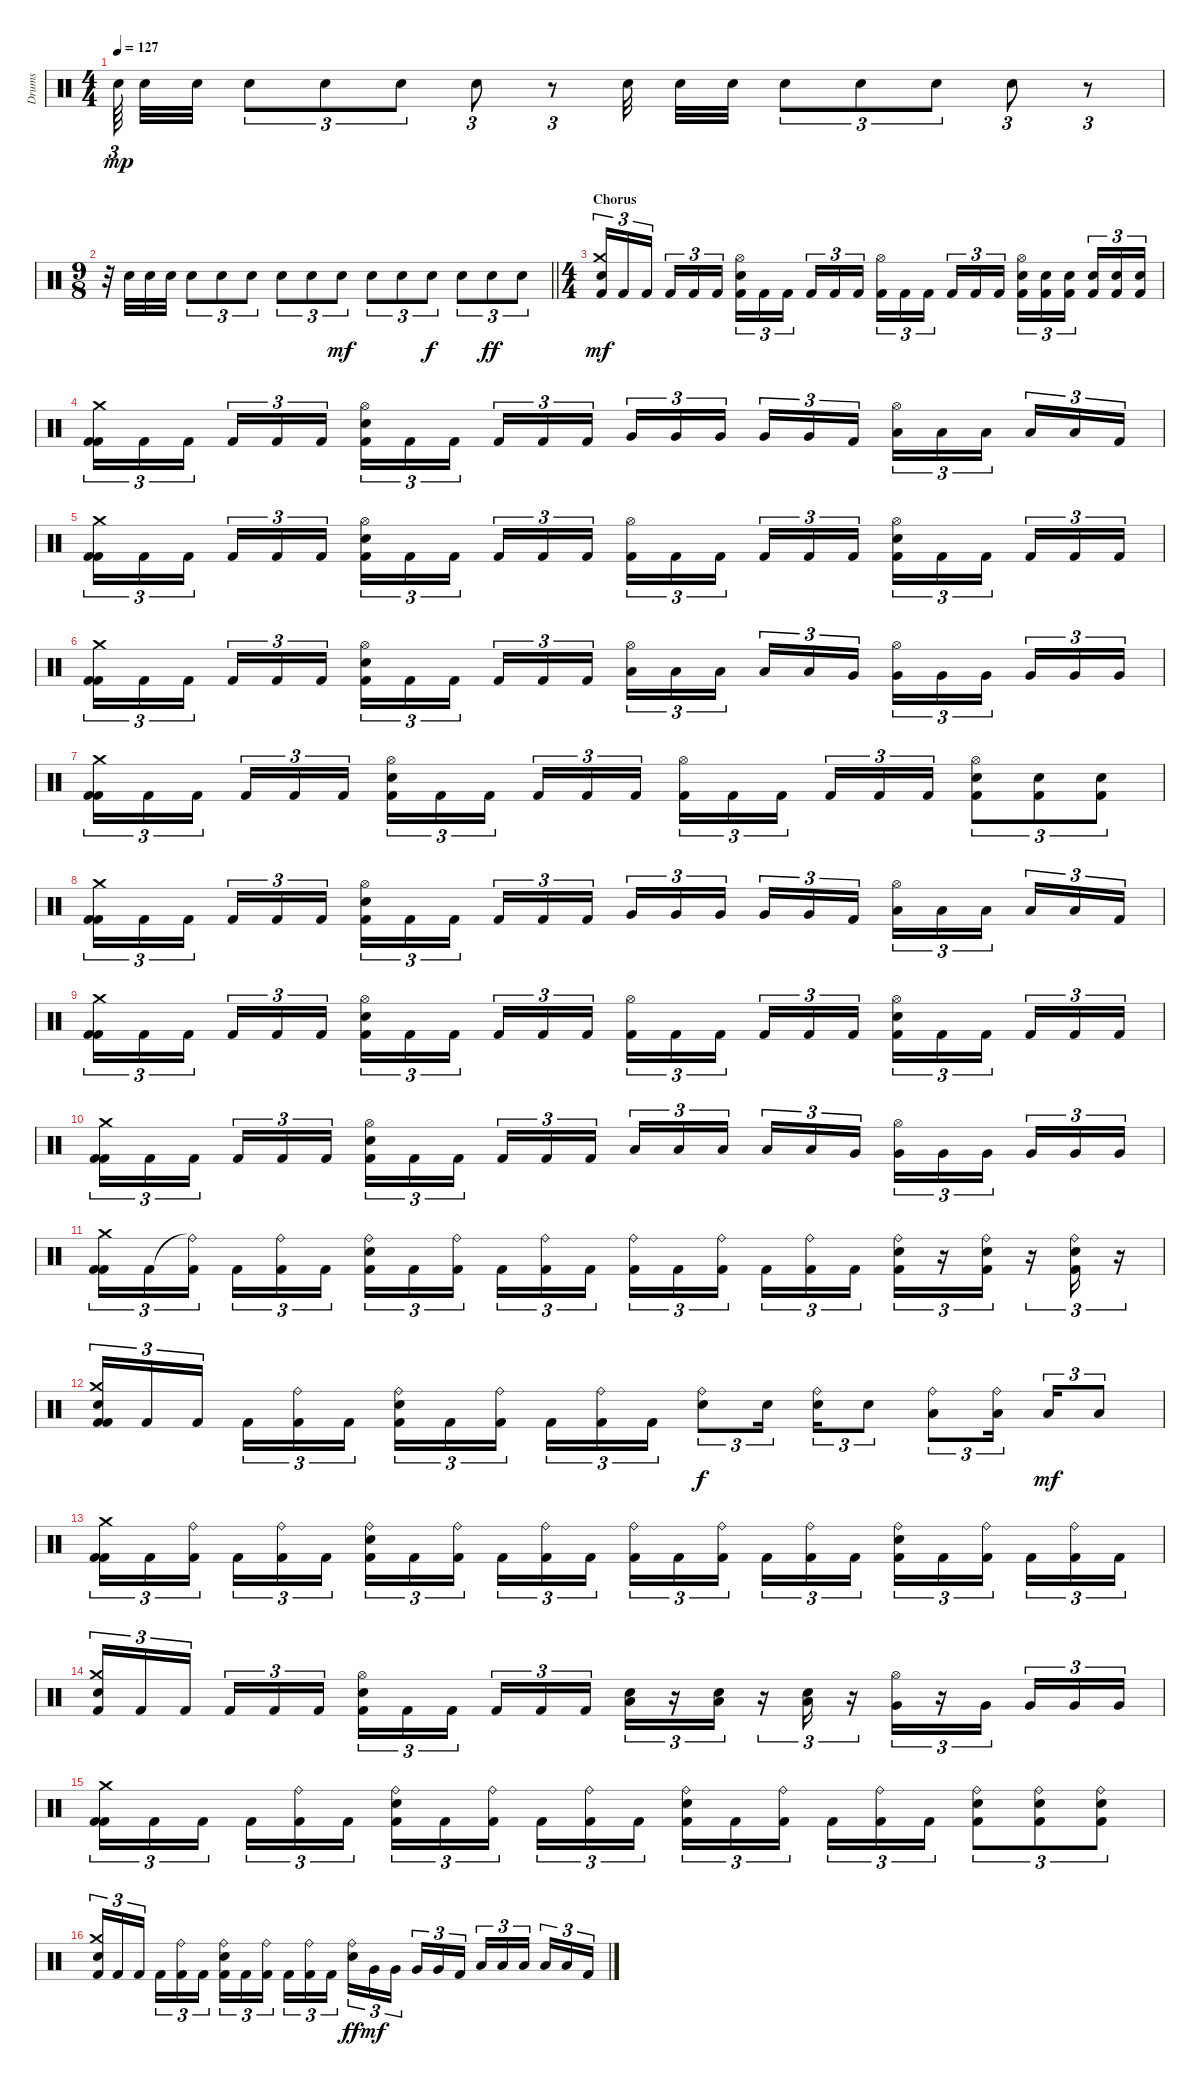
\track ("Drums" "Drums") {instrument percussion}
\staff {score}
\articulation defaults
\ts (4 4)
\tempo 127
\clef neutral
\ks c "Snare (hit) 2".64{tu (3 2) dy mp beam splitsecondary} "Snare (hit) 2".32 "Snare (hit) 2".32 "Snare (hit) 2".8{tu (3 2)} "Snare (hit) 2".8{tu (3 2)} "Snare (hit) 2".8{tu (3 2)} "Snare (hit) 2".8{tu (3 2)}
r.8{tu (3 2)} "Snare (hit) 2".32 "Snare (hit) 2".32 "Snare (hit) 2".32 "Snare (hit) 2".8{tu (3 2)} "Snare (hit) 2".8{tu (3 2)} "Snare (hit) 2".8{tu (3 2)} "Snare (hit) 2".8{tu (3 2)} r.8{tu (3 2)} |
\ts (9 8)
\barLineRight lightlight
r.32 "Snare (hit) 2".32 "Snare (hit) 2".32 "Snare (hit) 2".32 "Snare (hit) 2".8{tu (3 2)} "Snare (hit) 2".8{tu (3 2)} "Snare (hit) 2".8{tu (3 2)} "Snare (hit) 2".8{tu (3 2)} "Snare (hit) 2".8{tu (3 2)} "Snare (hit) 2".8{tu (3 2) dy mf} "Snare (hit) 2".8{tu (3 2)} "Snare (hit) 2".8{tu (3 2)} "Snare (hit) 2".8{tu (3 2) dy f} "Snare (hit) 2".8{tu (3 2)} "Snare (hit) 2".8{tu (3 2) dy ff} "Snare (hit) 2".8{tu (3 2)} |
\ts (4 4)
\section ("" "Chorus")
("Crash medium (hit)" "Snare (hit) 2" "Kick (hit) 2").16{tu (3 2) dy mf} "Kick (hit) 2".16{tu (3 2)} "Kick (hit) 2".16{tu (3 2) beam splitsecondary} "Kick (hit) 2".16{tu (3 2)} "Kick (hit) 2".16{tu (3 2)} "Kick (hit) 2".16{tu (3 2)} ("Hi-Hat (open)" "Snare (hit) 2" "Kick (hit) 2").16{tu (3 2)} "Kick (hit) 2".16{tu (3 2)} "Kick (hit) 2".16{tu (3 2) beam splitsecondary} "Kick (hit) 2".16{tu (3 2)} "Kick (hit) 2".16{tu (3 2)} "Kick (hit) 2".16{tu (3 2)} ("Hi-Hat (open)" "Kick (hit) 2").16{tu (3 2)} "Kick (hit) 2".16{tu (3 2)} "Kick (hit) 2".16{tu (3 2) beam splitsecondary} "Kick (hit) 2".16{tu (3 2)} "Kick (hit) 2".16{tu (3 2)} "Kick (hit) 2".16{tu (3 2)} ("Hi-Hat (open)" "Snare (hit) 2" "Kick (hit) 2").16{tu (3 2)} ("Snare (hit) 2" "Kick (hit) 2").16{tu (3 2)} ("Snare (hit) 2" "Kick (hit) 2").16{tu (3 2) beam splitsecondary} ("Snare (hit) 2" "Kick (hit) 2").16{tu (3 2)} ("Snare (hit) 2" "Kick (hit) 2").16{tu (3 2)} ("Snare (hit) 2" "Kick (hit) 2").16{tu (3 2)} |
("Crash medium (hit)" "Kick (hit) 2" "Kick (hit) 2").16{tu (3 2)} "Kick (hit) 2".16{tu (3 2)} "Kick (hit) 2".16{tu (3 2) beam splitsecondary} "Kick (hit) 2".16{tu (3 2)} "Kick (hit) 2".16{tu (3 2)} "Kick (hit) 2".16{tu (3 2)} ("Hi-Hat (open)" "Snare (hit) 2" "Kick (hit) 2").16{tu (3 2)} "Kick (hit) 2".16{tu (3 2)} "Kick (hit) 2".16{tu (3 2) beam splitsecondary} "Kick (hit) 2".16{tu (3 2)} "Kick (hit) 2".16{tu (3 2)} "Kick (hit) 2".16{tu (3 2)} "Very Low Tom (hit)".16{tu (3 2)} "Very Low Tom (hit)".16{tu (3 2)} "Very Low Tom (hit)".16{tu (3 2) beam splitsecondary} "Very Low Tom (hit)".16{tu (3 2)} "Very Low Tom (hit)".16{tu (3 2)} "Kick (hit) 2".16{tu (3 2)} ("Hi-Hat (open)" "Low Floor Tom (hit)").16{tu (3 2)} "Low Floor Tom (hit)".16{tu (3 2)} "Low Floor Tom (hit)".16{tu (3 2) beam splitsecondary} "Low Floor Tom (hit)".16{tu (3 2)} "Low Floor Tom (hit)".16{tu (3 2)} "Kick (hit) 2".16{tu (3 2)} |
("Crash medium (hit)" "Kick (hit) 2" "Kick (hit) 2").16{tu (3 2)} "Kick (hit) 2".16{tu (3 2)} "Kick (hit) 2".16{tu (3 2) beam splitsecondary} "Kick (hit) 2".16{tu (3 2)} "Kick (hit) 2".16{tu (3 2)} "Kick (hit) 2".16{tu (3 2)} ("Hi-Hat (open)" "Snare (hit) 2" "Kick (hit) 2").16{tu (3 2)} "Kick (hit) 2".16{tu (3 2)} "Kick (hit) 2".16{tu (3 2) beam splitsecondary} "Kick (hit) 2".16{tu (3 2)} "Kick (hit) 2".16{tu (3 2)} "Kick (hit) 2".16{tu (3 2)} ("Hi-Hat (open)" "Kick (hit) 2").16{tu (3 2)} "Kick (hit) 2".16{tu (3 2)} "Kick (hit) 2".16{tu (3 2) beam splitsecondary} "Kick (hit) 2".16{tu (3 2)} "Kick (hit) 2".16{tu (3 2)} "Kick (hit) 2".16{tu (3 2)} ("Hi-Hat (open)" "Snare (hit) 2" "Kick (hit) 2").16{tu (3 2)} "Kick (hit) 2".16{tu (3 2)} "Kick (hit) 2".16{tu (3 2) beam splitsecondary} "Kick (hit) 2".16{tu (3 2)} "Kick (hit) 2".16{tu (3 2)} "Kick (hit) 2".16{tu (3 2)} |
("Crash medium (hit)" "Kick (hit) 2" "Kick (hit) 2").16{tu (3 2)} "Kick (hit) 2".16{tu (3 2)} "Kick (hit) 2".16{tu (3 2) beam splitsecondary} "Kick (hit) 2".16{tu (3 2)} "Kick (hit) 2".16{tu (3 2)} "Kick (hit) 2".16{tu (3 2)} ("Hi-Hat (open)" "Snare (hit) 2" "Kick (hit) 2").16{tu (3 2)} "Kick (hit) 2".16{tu (3 2)} "Kick (hit) 2".16{tu (3 2) beam splitsecondary} "Kick (hit) 2".16{tu (3 2)} "Kick (hit) 2".16{tu (3 2)} "Kick (hit) 2".16{tu (3 2)} ("Hi-Hat (open)" "Low Tom (hit)").16{tu (3 2)} "Low Tom (hit)".16{tu (3 2)} "Low Tom (hit)".16{tu (3 2) beam splitsecondary} "Low Tom (hit)".16{tu (3 2)} "Low Tom (hit)".16{tu (3 2)} "Very Low Tom (hit)".16{tu (3 2)} ("Hi-Hat (open)" "Very Low Tom (hit)").16{tu (3 2)} "Very Low Tom (hit)".16{tu (3 2)} "Very Low Tom (hit)".16{tu (3 2) beam splitsecondary} "Very Low Tom (hit)".16{tu (3 2)} "Very Low Tom (hit)".16{tu (3 2)} "Very Low Tom (hit)".16{tu (3 2)} |
("Crash medium (hit)" "Kick (hit) 2" "Kick (hit) 2").16{tu (3 2)} "Kick (hit) 2".16{tu (3 2)} "Kick (hit) 2".16{tu (3 2) beam splitsecondary} "Kick (hit) 2".16{tu (3 2)} "Kick (hit) 2".16{tu (3 2)} "Kick (hit) 2".16{tu (3 2)} ("Hi-Hat (open)" "Snare (hit) 2" "Kick (hit) 2").16{tu (3 2)} "Kick (hit) 2".16{tu (3 2)} "Kick (hit) 2".16{tu (3 2) beam splitsecondary} "Kick (hit) 2".16{tu (3 2)} "Kick (hit) 2".16{tu (3 2)} "Kick (hit) 2".16{tu (3 2)} ("Hi-Hat (open)" "Kick (hit) 2").16{tu (3 2)} "Kick (hit) 2".16{tu (3 2)} "Kick (hit) 2".16{tu (3 2) beam splitsecondary} "Kick (hit) 2".16{tu (3 2)} "Kick (hit) 2".16{tu (3 2)} "Kick (hit) 2".16{tu (3 2)} ("Hi-Hat (open)" "Snare (hit) 2" "Kick (hit) 2").8{tu (3 2)} ("Snare (hit) 2" "Kick (hit) 2").8{tu (3 2)} ("Snare (hit) 2" "Kick (hit) 2").8{tu (3 2)} |
("Crash medium (hit)" "Kick (hit) 2" "Kick (hit) 2").16{tu (3 2)} "Kick (hit) 2".16{tu (3 2)} "Kick (hit) 2".16{tu (3 2) beam splitsecondary} "Kick (hit) 2".16{tu (3 2)} "Kick (hit) 2".16{tu (3 2)} "Kick (hit) 2".16{tu (3 2)} ("Hi-Hat (open)" "Snare (hit) 2" "Kick (hit) 2").16{tu (3 2)} "Kick (hit) 2".16{tu (3 2)} "Kick (hit) 2".16{tu (3 2) beam splitsecondary} "Kick (hit) 2".16{tu (3 2)} "Kick (hit) 2".16{tu (3 2)} "Kick (hit) 2".16{tu (3 2)} "Very Low Tom (hit)".16{tu (3 2)} "Very Low Tom (hit)".16{tu (3 2)} "Very Low Tom (hit)".16{tu (3 2) beam splitsecondary} "Very Low Tom (hit)".16{tu (3 2)} "Very Low Tom (hit)".16{tu (3 2)} "Kick (hit) 2".16{tu (3 2)} ("Hi-Hat (open)" "Low Floor Tom (hit)").16{tu (3 2)} "Low Floor Tom (hit)".16{tu (3 2)} "Low Floor Tom (hit)".16{tu (3 2) beam splitsecondary} "Low Floor Tom (hit)".16{tu (3 2)} "Low Floor Tom (hit)".16{tu (3 2)} "Kick (hit) 2".16{tu (3 2)} |
("Crash medium (hit)" "Kick (hit) 2" "Kick (hit) 2").16{tu (3 2)} "Kick (hit) 2".16{tu (3 2)} "Kick (hit) 2".16{tu (3 2) beam splitsecondary} "Kick (hit) 2".16{tu (3 2)} "Kick (hit) 2".16{tu (3 2)} "Kick (hit) 2".16{tu (3 2)} ("Hi-Hat (open)" "Snare (hit) 2" "Kick (hit) 2").16{tu (3 2)} "Kick (hit) 2".16{tu (3 2)} "Kick (hit) 2".16{tu (3 2) beam splitsecondary} "Kick (hit) 2".16{tu (3 2)} "Kick (hit) 2".16{tu (3 2)} "Kick (hit) 2".16{tu (3 2)} ("Hi-Hat (open)" "Kick (hit) 2").16{tu (3 2)} "Kick (hit) 2".16{tu (3 2)} "Kick (hit) 2".16{tu (3 2) beam splitsecondary} "Kick (hit) 2".16{tu (3 2)} "Kick (hit) 2".16{tu (3 2)} "Kick (hit) 2".16{tu (3 2)} ("Hi-Hat (open)" "Snare (hit) 2" "Kick (hit) 2").16{tu (3 2)} "Kick (hit) 2".16{tu (3 2)} "Kick (hit) 2".16{tu (3 2) beam splitsecondary} "Kick (hit) 2".16{tu (3 2)} "Kick (hit) 2".16{tu (3 2)} "Kick (hit) 2".16{tu (3 2)} |
("Crash medium (hit)" "Kick (hit) 2" "Kick (hit) 2").16{tu (3 2)} "Kick (hit) 2".16{tu (3 2)} "Kick (hit) 2".16{tu (3 2) beam splitsecondary} "Kick (hit) 2".16{tu (3 2)} "Kick (hit) 2".16{tu (3 2)} "Kick (hit) 2".16{tu (3 2)} ("Hi-Hat (open)" "Snare (hit) 2" "Kick (hit) 2").16{tu (3 2)} "Kick (hit) 2".16{tu (3 2)} "Kick (hit) 2".16{tu (3 2) beam splitsecondary} "Kick (hit) 2".16{tu (3 2)} "Kick (hit) 2".16{tu (3 2)} "Kick (hit) 2".16{tu (3 2)} "Low Tom (hit)".16{tu (3 2)} "Low Tom (hit)".16{tu (3 2)} "Low Tom (hit)".16{tu (3 2) beam splitsecondary} "Low Tom (hit)".16{tu (3 2)} "Low Tom (hit)".16{tu (3 2)} "Very Low Tom (hit)".16{tu (3 2)} ("Hi-Hat (open)" "Very Low Tom (hit)").16{tu (3 2)} "Very Low Tom (hit)".16{tu (3 2)} "Very Low Tom (hit)".16{tu (3 2) beam splitsecondary} "Very Low Tom (hit)".16{tu (3 2)} "Very Low Tom (hit)".16{tu (3 2)} "Very Low Tom (hit)".16{tu (3 2)} |
("Crash medium (hit)" "Kick (hit) 2" "Kick (hit) 2").16{tu (3 2)} "Kick (hit) 2".16{tu (3 2)} ("Ride (bell)"{t} "Kick (hit) 2").16{tu (3 2) beam splitsecondary} "Kick (hit) 2".16{tu (3 2)} ("Ride (bell)" "Kick (hit) 2").16{tu (3 2)} "Kick (hit) 2".16{tu (3 2)} ("Ride (bell)" "Snare (hit) 2" "Kick (hit) 2").16{tu (3 2)} "Kick (hit) 2".16{tu (3 2)} ("Ride (bell)" "Kick (hit) 2").16{tu (3 2) beam splitsecondary} "Kick (hit) 2".16{tu (3 2)} ("Ride (bell)" "Kick (hit) 2").16{tu (3 2)} "Kick (hit) 2".16{tu (3 2)} ("Ride (bell)" "Kick (hit) 2").16{tu (3 2)} "Kick (hit) 2".16{tu (3 2)} ("Ride (bell)" "Kick (hit) 2").16{tu (3 2) beam splitsecondary} "Kick (hit) 2".16{tu (3 2)} ("Ride (bell)" "Kick (hit) 2").16{tu (3 2)} "Kick (hit) 2".16{tu (3 2)} ("Ride (bell)" "Snare (hit) 2" "Kick (hit) 2").16{tu (3 2)} r.16{tu (3 2)} ("Ride (bell)" "Snare (hit) 2" "Kick (hit) 2").16{tu (3 2)} r.16{tu (3 2)} ("Ride (bell)" "Snare (hit) 2" "Kick (hit) 2").16{tu (3 2)} r.16{tu (3 2)} |
("Crash medium (hit)" "Snare (hit) 2" "Kick (hit) 2" "Kick (hit) 2").16{tu (3 2)} "Kick (hit) 2".16{tu (3 2)} "Kick (hit) 2".16{tu (3 2) beam splitsecondary} "Kick (hit) 2".16{tu (3 2)} ("Ride (bell)" "Kick (hit) 2").16{tu (3 2)} "Kick (hit) 2".16{tu (3 2)} ("Ride (bell)" "Snare (hit) 2" "Kick (hit) 2").16{tu (3 2)} "Kick (hit) 2".16{tu (3 2)} ("Ride (bell)" "Kick (hit) 2").16{tu (3 2) beam splitsecondary} "Kick (hit) 2".16{tu (3 2)} ("Ride (bell)" "Kick (hit) 2").16{tu (3 2)} "Kick (hit) 2".16{tu (3 2)} ("Ride (bell)" "Snare (hit) 2").8{tu (3 2) dy f} "Snare (hit) 2".16{tu (3 2) beam splitsecondary} ("Ride (bell)" "Snare (hit) 2").16{tu (3 2)} "Snare (hit) 2".8{tu (3 2)} ("Ride (bell)" "Low Floor Tom (hit)").8{tu (3 2)} ("Ride (bell)" "Low Floor Tom (hit)").16{tu (3 2) beam splitsecondary} "Low Floor Tom (hit)".16{tu (3 2) dy mf} "Low Floor Tom (hit)".8{tu (3 2)} |
("Crash medium (hit)" "Kick (hit) 2" "Kick (hit) 2").16{tu (3 2)} "Kick (hit) 2".16{tu (3 2)} ("Ride (bell)" "Kick (hit) 2").16{tu (3 2) beam splitsecondary} "Kick (hit) 2".16{tu (3 2)} ("Ride (bell)" "Kick (hit) 2").16{tu (3 2)} "Kick (hit) 2".16{tu (3 2)} ("Ride (bell)" "Snare (hit) 2" "Kick (hit) 2").16{tu (3 2)} "Kick (hit) 2".16{tu (3 2)} ("Ride (bell)" "Kick (hit) 2").16{tu (3 2) beam splitsecondary} "Kick (hit) 2".16{tu (3 2)} ("Ride (bell)" "Kick (hit) 2").16{tu (3 2)} "Kick (hit) 2".16{tu (3 2)} ("Ride (bell)" "Kick (hit) 2").16{tu (3 2)} "Kick (hit) 2".16{tu (3 2)} ("Ride (bell)" "Kick (hit) 2").16{tu (3 2) beam splitsecondary} "Kick (hit) 2".16{tu (3 2)} ("Ride (bell)" "Kick (hit) 2").16{tu (3 2)} "Kick (hit) 2".16{tu (3 2)} ("Ride (bell)" "Snare (hit) 2" "Kick (hit) 2").16{tu (3 2)} "Kick (hit) 2".16{tu (3 2)} ("Ride (bell)" "Kick (hit) 2").16{tu (3 2) beam splitsecondary} "Kick (hit) 2".16{tu (3 2)} ("Ride (bell)" "Kick (hit) 2").16{tu (3 2)} "Kick (hit) 2".16{tu (3 2)} |
("Crash medium (hit)" "Snare (hit) 2" "Kick (hit) 2").16{tu (3 2)} "Kick (hit) 2".16{tu (3 2)} "Kick (hit) 2".16{tu (3 2) beam splitsecondary} "Kick (hit) 2".16{tu (3 2)} "Kick (hit) 2".16{tu (3 2)} "Kick (hit) 2".16{tu (3 2)} ("Hi-Hat (open)" "Snare (hit) 2" "Kick (hit) 2").16{tu (3 2)} "Kick (hit) 2".16{tu (3 2)} "Kick (hit) 2".16{tu (3 2) beam splitsecondary} "Kick (hit) 2".16{tu (3 2)} "Kick (hit) 2".16{tu (3 2)} "Kick (hit) 2".16{tu (3 2)} ("Snare (hit) 2" "Low Tom (hit)").16{tu (3 2)} r.16{tu (3 2)} ("Snare (hit) 2" "Low Tom (hit)").16{tu (3 2)} r.16{tu (3 2)} ("Snare (hit) 2" "Low Tom (hit)").16{tu (3 2)} r.16{tu (3 2)} ("Hi-Hat (open)" "Very Low Tom (hit)").16{tu (3 2)} r.16{tu (3 2)} "Very Low Tom (hit)".16{tu (3 2) beam splitsecondary} "Very Low Tom (hit)".16{tu (3 2)} "Very Low Tom (hit)".16{tu (3 2)} "Very Low Tom (hit)".16{tu (3 2)} |
("Crash medium (hit)" "Kick (hit) 2" "Kick (hit) 2").16{tu (3 2)} "Kick (hit) 2".16{tu (3 2)} "Kick (hit) 2".16{tu (3 2) beam splitsecondary} "Kick (hit) 2".16{tu (3 2)} ("Ride (bell)" "Kick (hit) 2").16{tu (3 2)} "Kick (hit) 2".16{tu (3 2)} ("Ride (bell)" "Snare (hit) 2" "Kick (hit) 2").16{tu (3 2)} "Kick (hit) 2".16{tu (3 2)} ("Ride (bell)" "Kick (hit) 2").16{tu (3 2) beam splitsecondary} "Kick (hit) 2".16{tu (3 2)} ("Ride (bell)" "Kick (hit) 2").16{tu (3 2)} "Kick (hit) 2".16{tu (3 2)} ("Ride (bell)" "Snare (hit) 2" "Kick (hit) 2").16{tu (3 2)} "Kick (hit) 2".16{tu (3 2)} ("Ride (bell)" "Kick (hit) 2").16{tu (3 2) beam splitsecondary} "Kick (hit) 2".16{tu (3 2)} ("Ride (bell)" "Kick (hit) 2").16{tu (3 2)} "Kick (hit) 2".16{tu (3 2)} ("Ride (bell)" "Snare (hit) 2" "Kick (hit) 2").8{tu (3 2)} ("Ride (bell)" "Snare (hit) 2" "Kick (hit) 2").8{tu (3 2)} ("Ride (bell)" "Snare (hit) 2" "Kick (hit) 2").8{tu (3 2)} |
("Crash medium (hit)" "Snare (hit) 2" "Kick (hit) 2").16{tu (3 2)} "Kick (hit) 2".16{tu (3 2)} "Kick (hit) 2".16{tu (3 2) beam splitsecondary} "Kick (hit) 2".16{tu (3 2)} ("Ride (bell)" "Kick (hit) 2").16{tu (3 2)} "Kick (hit) 2".16{tu (3 2)} ("Ride (bell)" "Snare (hit) 2" "Kick (hit) 2").16{tu (3 2)} "Kick (hit) 2".16{tu (3 2)} ("Ride (bell)" "Kick (hit) 2").16{tu (3 2) beam splitsecondary} "Kick (hit) 2".16{tu (3 2)} ("Ride (bell)" "Kick (hit) 2").16{tu (3 2)} "Kick (hit) 2".16{tu (3 2)} ("Ride (bell)" "Snare (hit) 2").16{tu (3 2) dy ff} "Very Low Tom (hit)".16{tu (3 2) dy mf} "Very Low Tom (hit)".16{tu (3 2) beam splitsecondary} "Very Low Tom (hit)".16{tu (3 2)} "Very Low Tom (hit)".16{tu (3 2)} "Kick (hit) 2".16{tu (3 2)} "Low Floor Tom (hit)".16{tu (3 2)} "Low Floor Tom (hit)".16{tu (3 2)} "Low Floor Tom (hit)".16{tu (3 2) beam splitsecondary} "Low Floor Tom (hit)".16{tu (3 2)} "Low Floor Tom (hit)".16{tu (3 2)} "Kick (hit) 2".16{tu (3 2)}
